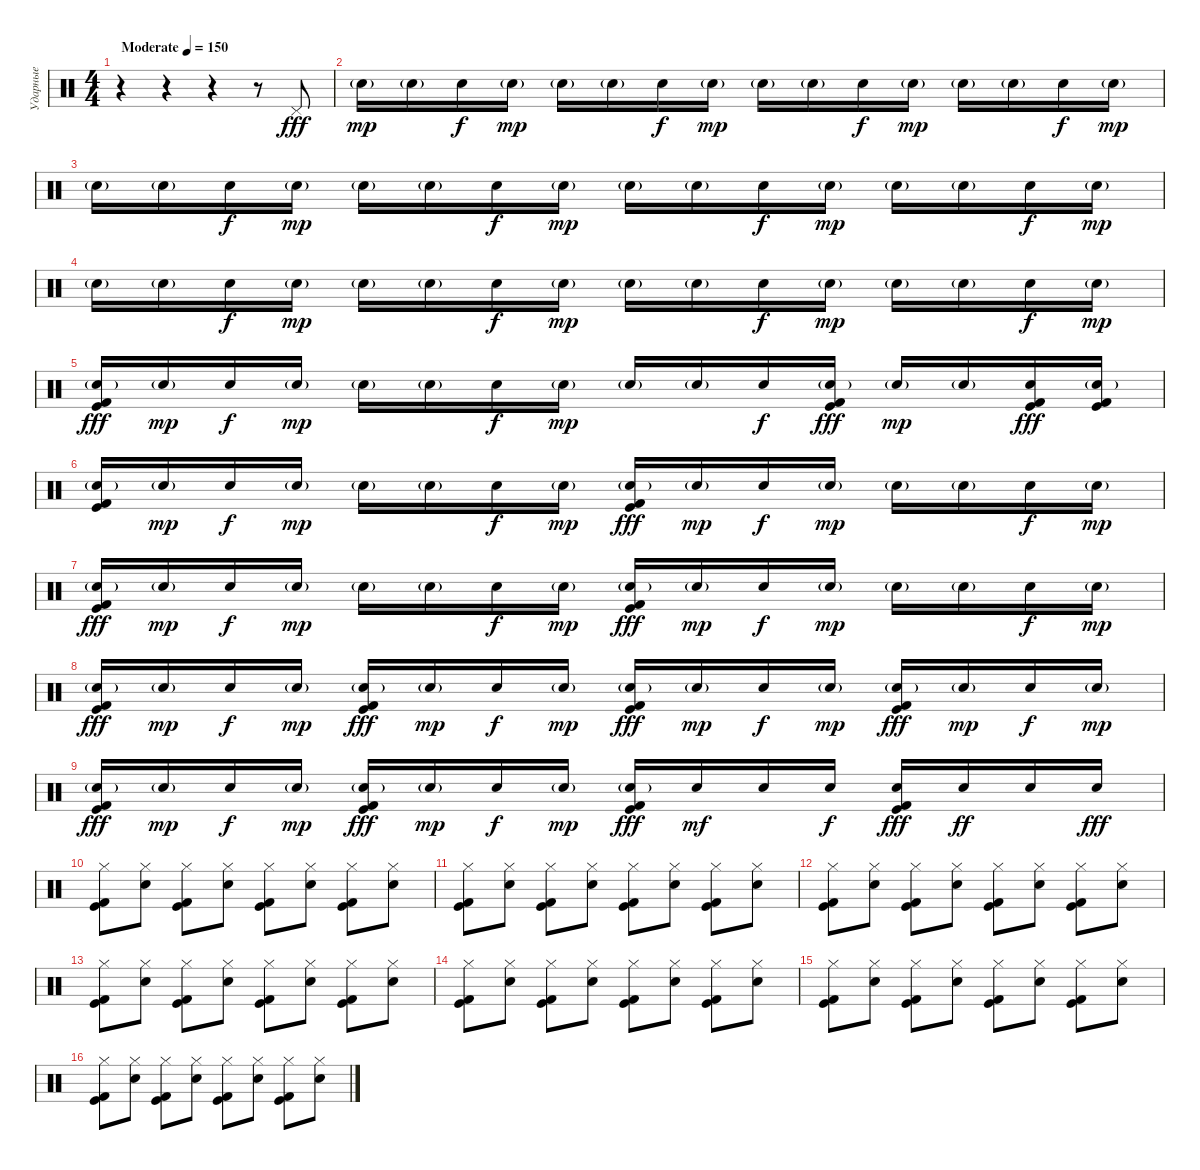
\track ("Ударные" "Ударные") {instrument percussion}
\staff {score}
\articulation defaults
\ts (4 4)
\tempo (150 "Moderate")
\clef neutral
\ks c
r.4{dy fff} r.4 r.4 r.8 "Pedal Hi-Hat (hit)".8 |
"Snare (hit) 2"{g}.16{dy mp} "Snare (hit) 2"{g}.16 "Snare (hit) 2".16{dy f} "Snare (hit) 2"{g}.16{dy mp} "Snare (hit) 2"{g}.16 "Snare (hit) 2"{g}.16 "Snare (hit) 2".16{dy f} "Snare (hit) 2"{g}.16{dy mp} "Snare (hit) 2"{g}.16 "Snare (hit) 2"{g}.16 "Snare (hit) 2".16{dy f} "Snare (hit) 2"{g}.16{dy mp} "Snare (hit) 2"{g}.16 "Snare (hit) 2"{g}.16 "Snare (hit) 2".16{dy f} "Snare (hit) 2"{g}.16{dy mp} |
"Snare (hit) 2"{g}.16 "Snare (hit) 2"{g}.16 "Snare (hit) 2".16{dy f} "Snare (hit) 2"{g}.16{dy mp} "Snare (hit) 2"{g}.16 "Snare (hit) 2"{g}.16 "Snare (hit) 2".16{dy f} "Snare (hit) 2"{g}.16{dy mp} "Snare (hit) 2"{g}.16 "Snare (hit) 2"{g}.16 "Snare (hit) 2".16{dy f} "Snare (hit) 2"{g}.16{dy mp} "Snare (hit) 2"{g}.16 "Snare (hit) 2"{g}.16 "Snare (hit) 2".16{dy f} "Snare (hit) 2"{g}.16{dy mp} |
"Snare (hit) 2"{g}.16 "Snare (hit) 2"{g}.16 "Snare (hit) 2".16{dy f} "Snare (hit) 2"{g}.16{dy mp} "Snare (hit) 2"{g}.16 "Snare (hit) 2"{g}.16 "Snare (hit) 2".16{dy f} "Snare (hit) 2"{g}.16{dy mp} "Snare (hit) 2"{g}.16 "Snare (hit) 2"{g}.16 "Snare (hit) 2".16{dy f} "Snare (hit) 2"{g}.16{dy mp} "Snare (hit) 2"{g}.16 "Snare (hit) 2"{g}.16 "Snare (hit) 2".16{dy f} "Snare (hit) 2"{g}.16{dy mp} |
("Kick (hit) 2" "Snare (hit) 2"{g} "Kick (hit)").16{dy fff} "Snare (hit) 2"{g}.16{dy mp} "Snare (hit) 2".16{dy f} "Snare (hit) 2"{g}.16{dy mp} "Snare (hit) 2"{g}.16 "Snare (hit) 2"{g}.16 "Snare (hit) 2".16{dy f} "Snare (hit) 2"{g}.16{dy mp} "Snare (hit) 2"{g}.16 "Snare (hit) 2"{g}.16 "Snare (hit) 2".16{dy f} ("Kick (hit)" "Snare (hit) 2"{g} "Kick (hit) 2").16{dy fff} "Snare (hit) 2"{g}.16{dy mp} "Snare (hit) 2"{g}.16 ("Kick (hit) 2" "Snare (hit) 2" "Kick (hit)").16{dy fff} ("Kick (hit) 2" "Snare (hit) 2"{g} "Kick (hit)").16 |
("Kick (hit) 2" "Snare (hit) 2"{g} "Kick (hit)").16 "Snare (hit) 2"{g}.16{dy mp} "Snare (hit) 2".16{dy f} "Snare (hit) 2"{g}.16{dy mp} "Snare (hit) 2"{g}.16 "Snare (hit) 2"{g}.16 "Snare (hit) 2".16{dy f} "Snare (hit) 2"{g}.16{dy mp} ("Kick (hit) 2" "Snare (hit) 2"{g} "Kick (hit)").16{dy fff} "Snare (hit) 2"{g}.16{dy mp} "Snare (hit) 2".16{dy f} "Snare (hit) 2"{g}.16{dy mp} "Snare (hit) 2"{g}.16 "Snare (hit) 2"{g}.16 "Snare (hit) 2".16{dy f} "Snare (hit) 2"{g}.16{dy mp} |
("Kick (hit) 2" "Snare (hit) 2"{g} "Kick (hit)").16{dy fff} "Snare (hit) 2"{g}.16{dy mp} "Snare (hit) 2".16{dy f} "Snare (hit) 2"{g}.16{dy mp} "Snare (hit) 2"{g}.16 "Snare (hit) 2"{g}.16 "Snare (hit) 2".16{dy f} "Snare (hit) 2"{g}.16{dy mp} ("Kick (hit) 2" "Snare (hit) 2"{g} "Kick (hit)").16{dy fff} "Snare (hit) 2"{g}.16{dy mp} "Snare (hit) 2".16{dy f} "Snare (hit) 2"{g}.16{dy mp} "Snare (hit) 2"{g}.16 "Snare (hit) 2"{g}.16 "Snare (hit) 2".16{dy f} "Snare (hit) 2"{g}.16{dy mp} |
("Kick (hit) 2" "Snare (hit) 2"{g} "Kick (hit)").16{dy fff} "Snare (hit) 2"{g}.16{dy mp} "Snare (hit) 2".16{dy f} "Snare (hit) 2"{g}.16{dy mp} ("Kick (hit) 2" "Snare (hit) 2"{g} "Kick (hit)").16{dy fff} "Snare (hit) 2"{g}.16{dy mp} "Snare (hit) 2".16{dy f} "Snare (hit) 2"{g}.16{dy mp} ("Kick (hit) 2" "Snare (hit) 2"{g} "Kick (hit)").16{dy fff} "Snare (hit) 2"{g}.16{dy mp} "Snare (hit) 2".16{dy f} "Snare (hit) 2"{g}.16{dy mp} ("Kick (hit) 2" "Snare (hit) 2"{g} "Kick (hit)").16{dy fff} "Snare (hit) 2"{g}.16{dy mp} "Snare (hit) 2".16{dy f} "Snare (hit) 2"{g}.16{dy mp} |
("Kick (hit) 2" "Snare (hit) 2"{g} "Kick (hit)").16{dy fff} "Snare (hit) 2"{g}.16{dy mp} "Snare (hit) 2".16{dy f} "Snare (hit) 2"{g}.16{dy mp} ("Kick (hit) 2" "Snare (hit) 2"{g} "Kick (hit)").16{dy fff} "Snare (hit) 2"{g}.16{dy mp} "Snare (hit) 2".16{dy f} "Snare (hit) 2"{g}.16{dy mp} ("Kick (hit) 2" "Snare (hit) 2"{g} "Kick (hit)").16{dy fff} "Snare (hit) 2".16{dy mf} "Snare (hit) 2".16 "Snare (hit) 2".16{dy f} ("Kick (hit) 2" "Snare (hit) 2" "Kick (hit)").16{dy fff} "Snare (hit) 2".16{dy ff} "Snare (hit) 2".16 "Snare (hit) 2".16{dy fff} |
("Kick (hit)" "Kick (hit) 2" "Hi-Hat (closed)").8 ("Snare (hit) 2" "Hi-Hat (closed)").8 ("Kick (hit)" "Kick (hit) 2" "Hi-Hat (closed)").8 ("Snare (hit) 2" "Hi-Hat (closed)").8 ("Kick (hit)" "Kick (hit) 2" "Hi-Hat (closed)").8 ("Snare (hit) 2" "Hi-Hat (closed)").8 ("Kick (hit)" "Kick (hit) 2" "Hi-Hat (closed)").8 ("Snare (hit) 2" "Hi-Hat (closed)").8 |
("Kick (hit)" "Kick (hit) 2" "Hi-Hat (closed)").8 ("Snare (hit) 2" "Hi-Hat (closed)").8 ("Kick (hit)" "Kick (hit) 2" "Hi-Hat (closed)").8 ("Snare (hit) 2" "Hi-Hat (closed)").8 ("Kick (hit)" "Kick (hit) 2" "Hi-Hat (closed)").8 ("Snare (hit) 2" "Hi-Hat (closed)").8 ("Kick (hit)" "Kick (hit) 2" "Hi-Hat (closed)").8 ("Snare (hit) 2" "Hi-Hat (closed)").8 |
("Kick (hit)" "Kick (hit) 2" "Hi-Hat (closed)").8 ("Snare (hit) 2" "Hi-Hat (closed)").8 ("Kick (hit)" "Kick (hit) 2" "Hi-Hat (closed)").8 ("Snare (hit) 2" "Hi-Hat (closed)").8 ("Kick (hit)" "Kick (hit) 2" "Hi-Hat (closed)").8 ("Snare (hit) 2" "Hi-Hat (closed)").8 ("Kick (hit)" "Kick (hit) 2" "Hi-Hat (closed)").8 ("Snare (hit) 2" "Hi-Hat (closed)").8 |
("Kick (hit)" "Kick (hit) 2" "Hi-Hat (closed)").8 ("Snare (hit) 2" "Hi-Hat (closed)").8 ("Kick (hit)" "Kick (hit) 2" "Hi-Hat (closed)").8 ("Snare (hit) 2" "Hi-Hat (closed)").8 ("Kick (hit)" "Kick (hit) 2" "Hi-Hat (closed)").8 ("Snare (hit) 2" "Hi-Hat (closed)").8 ("Kick (hit)" "Kick (hit) 2" "Hi-Hat (closed)").8 ("Snare (hit) 2" "Hi-Hat (closed)").8 |
("Kick (hit)" "Kick (hit) 2" "Hi-Hat (closed)").8 ("Snare (hit) 2" "Hi-Hat (closed)").8 ("Kick (hit)" "Kick (hit) 2" "Hi-Hat (closed)").8 ("Snare (hit) 2" "Hi-Hat (closed)").8 ("Kick (hit)" "Kick (hit) 2" "Hi-Hat (closed)").8 ("Snare (hit) 2" "Hi-Hat (closed)").8 ("Kick (hit)" "Kick (hit) 2" "Hi-Hat (closed)").8 ("Snare (hit) 2" "Hi-Hat (closed)").8 |
("Kick (hit)" "Kick (hit) 2" "Hi-Hat (closed)").8 ("Snare (hit) 2" "Hi-Hat (closed)").8 ("Kick (hit)" "Kick (hit) 2" "Hi-Hat (closed)").8 ("Snare (hit) 2" "Hi-Hat (closed)").8 ("Kick (hit)" "Kick (hit) 2" "Hi-Hat (closed)").8 ("Snare (hit) 2" "Hi-Hat (closed)").8 ("Kick (hit)" "Kick (hit) 2" "Hi-Hat (closed)").8 ("Snare (hit) 2" "Hi-Hat (closed)").8 |
("Kick (hit)" "Kick (hit) 2" "Hi-Hat (closed)").8 ("Snare (hit) 2" "Hi-Hat (closed)").8 ("Kick (hit)" "Kick (hit) 2" "Hi-Hat (closed)").8 ("Snare (hit) 2" "Hi-Hat (closed)").8 ("Kick (hit)" "Kick (hit) 2" "Hi-Hat (closed)").8 ("Snare (hit) 2" "Hi-Hat (closed)").8 ("Kick (hit)" "Kick (hit) 2" "Hi-Hat (closed)").8 ("Snare (hit) 2" "Hi-Hat (closed)").8
